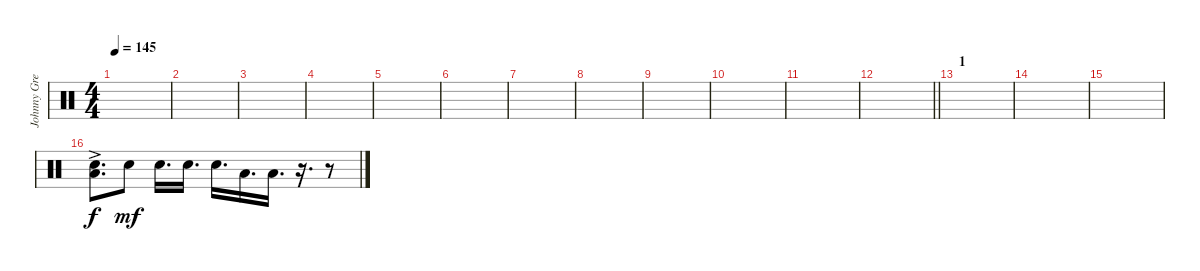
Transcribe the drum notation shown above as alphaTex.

\track ("Johnny Greenwood" "Johnny Gre") {instrument percussion}
\staff {score}
\articulation defaults
\ts (4 4)
\tempo 145
\clef neutral
\ks c
|
|
|
|
|
|
|
|
|
|
|
\barLineRight lightlight
|
\section ("" "1")
|
|
|
("Snare (hit) 2" "Low Floor Tom (hit)"{ac}).8{d} "Snare (hit) 2".8{dy mf} "Snare (hit) 2".16{d} "Snare (hit) 2".16{d} "Snare (hit) 2".16{d} "Low Floor Tom (hit)".16{d} "Low Floor Tom (hit)".16{d} r.16{d} r.8
